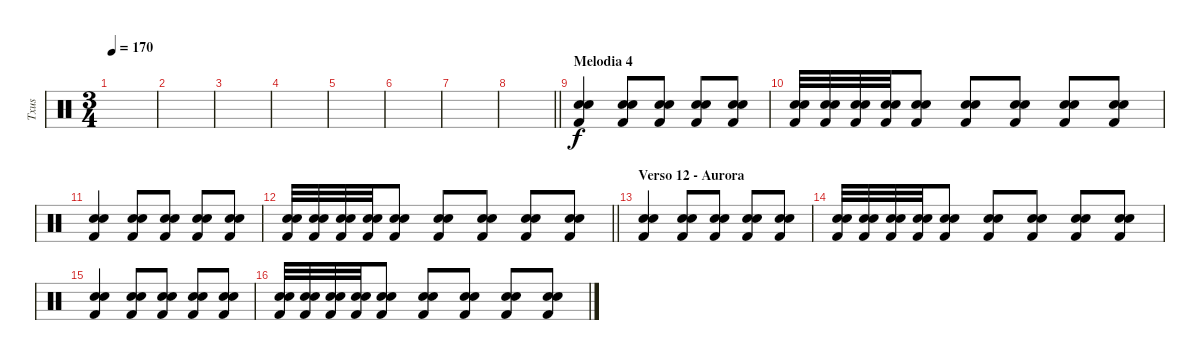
\track ("Txus" "Txus") {instrument percussion}
\staff {score}
\articulation defaults
\ts (3 4)
\tempo 170
\clef neutral
\ks c
|
|
|
|
|
|
|
\barLineRight lightlight
|
\section ("" "Melodia 4")
("Snare (hit) 2" "Hand Clap (hit)" "Kick (hit) 2").4 ("Snare (hit) 2" "Hand Clap (hit)" "Kick (hit) 2").8 ("Snare (hit) 2" "Hand Clap (hit)" "Kick (hit) 2").8 ("Snare (hit) 2" "Hand Clap (hit)" "Kick (hit) 2").8 ("Snare (hit) 2" "Hand Clap (hit)" "Kick (hit) 2").8 |
("Snare (hit) 2" "Hand Clap (hit)" "Kick (hit) 2").32 ("Snare (hit) 2" "Hand Clap (hit)" "Kick (hit) 2").32 ("Snare (hit) 2" "Hand Clap (hit)" "Kick (hit) 2").32 ("Snare (hit) 2" "Hand Clap (hit)" "Kick (hit) 2").32 ("Snare (hit) 2" "Hand Clap (hit)" "Kick (hit) 2").8 ("Snare (hit) 2" "Hand Clap (hit)" "Kick (hit) 2").8 ("Snare (hit) 2" "Hand Clap (hit)" "Kick (hit) 2").8 ("Snare (hit) 2" "Hand Clap (hit)" "Kick (hit) 2").8 ("Snare (hit) 2" "Hand Clap (hit)" "Kick (hit) 2").8 |
("Snare (hit) 2" "Hand Clap (hit)" "Kick (hit) 2").4 ("Snare (hit) 2" "Hand Clap (hit)" "Kick (hit) 2").8 ("Snare (hit) 2" "Hand Clap (hit)" "Kick (hit) 2").8 ("Snare (hit) 2" "Hand Clap (hit)" "Kick (hit) 2").8 ("Snare (hit) 2" "Hand Clap (hit)" "Kick (hit) 2").8 |
\barLineRight lightlight
("Snare (hit) 2" "Hand Clap (hit)" "Kick (hit) 2").32 ("Snare (hit) 2" "Hand Clap (hit)" "Kick (hit) 2").32 ("Snare (hit) 2" "Hand Clap (hit)" "Kick (hit) 2").32 ("Snare (hit) 2" "Hand Clap (hit)" "Kick (hit) 2").32 ("Snare (hit) 2" "Hand Clap (hit)" "Kick (hit) 2").8 ("Snare (hit) 2" "Hand Clap (hit)" "Kick (hit) 2").8 ("Snare (hit) 2" "Hand Clap (hit)" "Kick (hit) 2").8 ("Snare (hit) 2" "Hand Clap (hit)" "Kick (hit) 2").8 ("Snare (hit) 2" "Hand Clap (hit)" "Kick (hit) 2").8 |
\section ("" "Verso 12 - Aurora")
("Snare (hit) 2" "Hand Clap (hit)" "Kick (hit) 2").4 ("Snare (hit) 2" "Hand Clap (hit)" "Kick (hit) 2").8 ("Snare (hit) 2" "Hand Clap (hit)" "Kick (hit) 2").8 ("Snare (hit) 2" "Hand Clap (hit)" "Kick (hit) 2").8 ("Snare (hit) 2" "Hand Clap (hit)" "Kick (hit) 2").8 |
("Snare (hit) 2" "Hand Clap (hit)" "Kick (hit) 2").32 ("Snare (hit) 2" "Hand Clap (hit)" "Kick (hit) 2").32 ("Snare (hit) 2" "Hand Clap (hit)" "Kick (hit) 2").32 ("Snare (hit) 2" "Hand Clap (hit)" "Kick (hit) 2").32 ("Snare (hit) 2" "Hand Clap (hit)" "Kick (hit) 2").8 ("Snare (hit) 2" "Hand Clap (hit)" "Kick (hit) 2").8 ("Snare (hit) 2" "Hand Clap (hit)" "Kick (hit) 2").8 ("Snare (hit) 2" "Hand Clap (hit)" "Kick (hit) 2").8 ("Snare (hit) 2" "Hand Clap (hit)" "Kick (hit) 2").8 |
("Snare (hit) 2" "Hand Clap (hit)" "Kick (hit) 2").4 ("Snare (hit) 2" "Hand Clap (hit)" "Kick (hit) 2").8 ("Snare (hit) 2" "Hand Clap (hit)" "Kick (hit) 2").8 ("Snare (hit) 2" "Hand Clap (hit)" "Kick (hit) 2").8 ("Snare (hit) 2" "Hand Clap (hit)" "Kick (hit) 2").8 |
("Snare (hit) 2" "Hand Clap (hit)" "Kick (hit) 2").32 ("Snare (hit) 2" "Hand Clap (hit)" "Kick (hit) 2").32 ("Snare (hit) 2" "Hand Clap (hit)" "Kick (hit) 2").32 ("Snare (hit) 2" "Hand Clap (hit)" "Kick (hit) 2").32 ("Snare (hit) 2" "Hand Clap (hit)" "Kick (hit) 2").8 ("Snare (hit) 2" "Hand Clap (hit)" "Kick (hit) 2").8 ("Snare (hit) 2" "Hand Clap (hit)" "Kick (hit) 2").8 ("Snare (hit) 2" "Hand Clap (hit)" "Kick (hit) 2").8 ("Snare (hit) 2" "Hand Clap (hit)" "Kick (hit) 2").8
